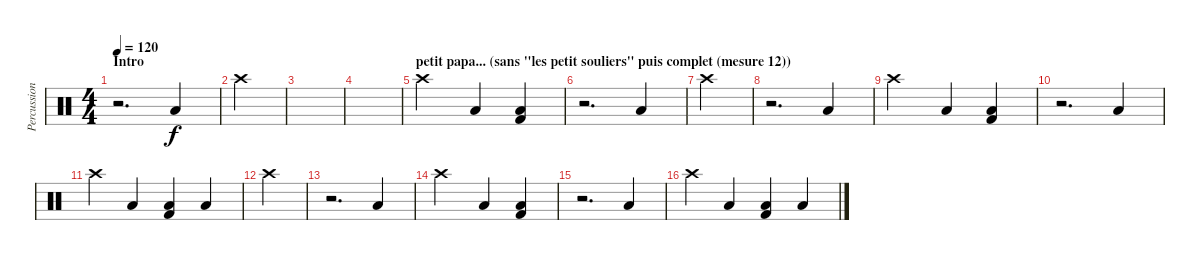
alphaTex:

\track ("Percussions" "Percussion") {instrument percussion}
\staff {score}
\articulation defaults
\ts (4 4)
\section ("" "Intro")
\tempo 120
\clef neutral
\ks c
r.2{d dy f} "Low Tom (hit)".4 |
"Crash high (hit)".4 |
|
|
\section ("" "petit papa... (sans \"les petit souliers\" puis complet (mesure 12))")
"Crash high (hit)".2 "Low Tom (hit)".4 ("Low Tom (hit)" "Kick (hit) 2").4 |
r.2{d} "Low Tom (hit)".4 |
"Crash high (hit)".4 |
r.2{d} "Low Tom (hit)".4 |
"Crash high (hit)".2 "Low Tom (hit)".4 ("Low Tom (hit)" "Kick (hit) 2").4 |
r.2{d} "Low Tom (hit)".4 |
"Crash high (hit)".4 "Low Tom (hit)".4 ("Low Tom (hit)" "Kick (hit) 2").4 "Low Tom (hit)".4 |
"Crash high (hit)".4 |
r.2{d} "Low Tom (hit)".4 |
"Crash high (hit)".2 "Low Tom (hit)".4 ("Low Tom (hit)" "Kick (hit) 2").4 |
r.2{d} "Low Tom (hit)".4 |
"Crash high (hit)".4 "Low Tom (hit)".4 ("Low Tom (hit)" "Kick (hit) 2").4 "Low Tom (hit)".4
